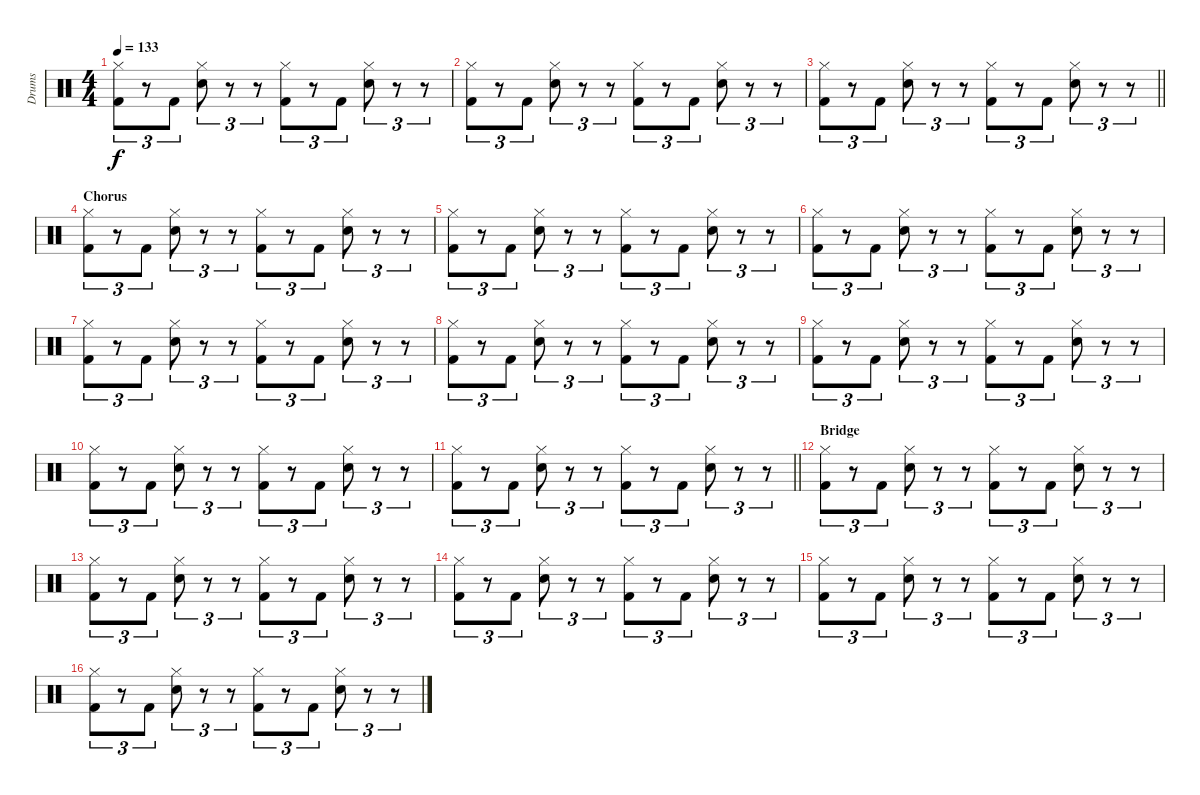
\track ("Drums" "Drums") {instrument percussion}
\staff {score}
\articulation defaults
\ts (4 4)
\tempo 133
\clef neutral
\ks c
("Hi-Hat (closed)" "Kick (hit) 2").8{tu (3 2) dy f} r.8{tu (3 2)} "Kick (hit) 2".8{tu (3 2)} ("Hi-Hat (closed)" "Snare (hit) 2").8{tu (3 2)} r.8{tu (3 2)} r.8{tu (3 2)} ("Hi-Hat (closed)" "Kick (hit) 2").8{tu (3 2)} r.8{tu (3 2)} "Kick (hit) 2".8{tu (3 2)} ("Hi-Hat (closed)" "Snare (hit) 2").8{tu (3 2)} r.8{tu (3 2)} r.8{tu (3 2)} |
("Hi-Hat (closed)" "Kick (hit) 2").8{tu (3 2)} r.8{tu (3 2)} "Kick (hit) 2".8{tu (3 2)} ("Hi-Hat (closed)" "Snare (hit) 2").8{tu (3 2)} r.8{tu (3 2)} r.8{tu (3 2)} ("Hi-Hat (closed)" "Kick (hit) 2").8{tu (3 2)} r.8{tu (3 2)} "Kick (hit) 2".8{tu (3 2)} ("Hi-Hat (closed)" "Snare (hit) 2").8{tu (3 2)} r.8{tu (3 2)} r.8{tu (3 2)} |
\barLineRight lightlight
("Hi-Hat (closed)" "Kick (hit) 2").8{tu (3 2)} r.8{tu (3 2)} "Kick (hit) 2".8{tu (3 2)} ("Hi-Hat (closed)" "Snare (hit) 2").8{tu (3 2)} r.8{tu (3 2)} r.8{tu (3 2)} ("Hi-Hat (closed)" "Kick (hit) 2").8{tu (3 2)} r.8{tu (3 2)} "Kick (hit) 2".8{tu (3 2)} ("Hi-Hat (closed)" "Snare (hit) 2").8{tu (3 2)} r.8{tu (3 2)} r.8{tu (3 2)} |
\section ("" "Chorus")
("Hi-Hat (closed)" "Kick (hit) 2").8{tu (3 2)} r.8{tu (3 2)} "Kick (hit) 2".8{tu (3 2)} ("Hi-Hat (closed)" "Snare (hit) 2").8{tu (3 2)} r.8{tu (3 2)} r.8{tu (3 2)} ("Hi-Hat (closed)" "Kick (hit) 2").8{tu (3 2)} r.8{tu (3 2)} "Kick (hit) 2".8{tu (3 2)} ("Hi-Hat (closed)" "Snare (hit) 2").8{tu (3 2)} r.8{tu (3 2)} r.8{tu (3 2)} |
("Hi-Hat (closed)" "Kick (hit) 2").8{tu (3 2)} r.8{tu (3 2)} "Kick (hit) 2".8{tu (3 2)} ("Hi-Hat (closed)" "Snare (hit) 2").8{tu (3 2)} r.8{tu (3 2)} r.8{tu (3 2)} ("Hi-Hat (closed)" "Kick (hit) 2").8{tu (3 2)} r.8{tu (3 2)} "Kick (hit) 2".8{tu (3 2)} ("Hi-Hat (closed)" "Snare (hit) 2").8{tu (3 2)} r.8{tu (3 2)} r.8{tu (3 2)} |
("Hi-Hat (closed)" "Kick (hit) 2").8{tu (3 2)} r.8{tu (3 2)} "Kick (hit) 2".8{tu (3 2)} ("Hi-Hat (closed)" "Snare (hit) 2").8{tu (3 2)} r.8{tu (3 2)} r.8{tu (3 2)} ("Hi-Hat (closed)" "Kick (hit) 2").8{tu (3 2)} r.8{tu (3 2)} "Kick (hit) 2".8{tu (3 2)} ("Hi-Hat (closed)" "Snare (hit) 2").8{tu (3 2)} r.8{tu (3 2)} r.8{tu (3 2)} |
("Hi-Hat (closed)" "Kick (hit) 2").8{tu (3 2)} r.8{tu (3 2)} "Kick (hit) 2".8{tu (3 2)} ("Hi-Hat (closed)" "Snare (hit) 2").8{tu (3 2)} r.8{tu (3 2)} r.8{tu (3 2)} ("Hi-Hat (closed)" "Kick (hit) 2").8{tu (3 2)} r.8{tu (3 2)} "Kick (hit) 2".8{tu (3 2)} ("Hi-Hat (closed)" "Snare (hit) 2").8{tu (3 2)} r.8{tu (3 2)} r.8{tu (3 2)} |
("Hi-Hat (closed)" "Kick (hit) 2").8{tu (3 2)} r.8{tu (3 2)} "Kick (hit) 2".8{tu (3 2)} ("Hi-Hat (closed)" "Snare (hit) 2").8{tu (3 2)} r.8{tu (3 2)} r.8{tu (3 2)} ("Hi-Hat (closed)" "Kick (hit) 2").8{tu (3 2)} r.8{tu (3 2)} "Kick (hit) 2".8{tu (3 2)} ("Hi-Hat (closed)" "Snare (hit) 2").8{tu (3 2)} r.8{tu (3 2)} r.8{tu (3 2)} |
("Hi-Hat (closed)" "Kick (hit) 2").8{tu (3 2)} r.8{tu (3 2)} "Kick (hit) 2".8{tu (3 2)} ("Hi-Hat (closed)" "Snare (hit) 2").8{tu (3 2)} r.8{tu (3 2)} r.8{tu (3 2)} ("Hi-Hat (closed)" "Kick (hit) 2").8{tu (3 2)} r.8{tu (3 2)} "Kick (hit) 2".8{tu (3 2)} ("Hi-Hat (closed)" "Snare (hit) 2").8{tu (3 2)} r.8{tu (3 2)} r.8{tu (3 2)} |
("Hi-Hat (closed)" "Kick (hit) 2").8{tu (3 2)} r.8{tu (3 2)} "Kick (hit) 2".8{tu (3 2)} ("Hi-Hat (closed)" "Snare (hit) 2").8{tu (3 2)} r.8{tu (3 2)} r.8{tu (3 2)} ("Hi-Hat (closed)" "Kick (hit) 2").8{tu (3 2)} r.8{tu (3 2)} "Kick (hit) 2".8{tu (3 2)} ("Hi-Hat (closed)" "Snare (hit) 2").8{tu (3 2)} r.8{tu (3 2)} r.8{tu (3 2)} |
\barLineRight lightlight
("Hi-Hat (closed)" "Kick (hit) 2").8{tu (3 2)} r.8{tu (3 2)} "Kick (hit) 2".8{tu (3 2)} ("Hi-Hat (closed)" "Snare (hit) 2").8{tu (3 2)} r.8{tu (3 2)} r.8{tu (3 2)} ("Hi-Hat (closed)" "Kick (hit) 2").8{tu (3 2)} r.8{tu (3 2)} "Kick (hit) 2".8{tu (3 2)} ("Hi-Hat (closed)" "Snare (hit) 2").8{tu (3 2)} r.8{tu (3 2)} r.8{tu (3 2)} |
\section ("" "Bridge")
("Hi-Hat (closed)" "Kick (hit) 2").8{tu (3 2)} r.8{tu (3 2)} "Kick (hit) 2".8{tu (3 2)} ("Hi-Hat (closed)" "Snare (hit) 2").8{tu (3 2)} r.8{tu (3 2)} r.8{tu (3 2)} ("Hi-Hat (closed)" "Kick (hit) 2").8{tu (3 2)} r.8{tu (3 2)} "Kick (hit) 2".8{tu (3 2)} ("Hi-Hat (closed)" "Snare (hit) 2").8{tu (3 2)} r.8{tu (3 2)} r.8{tu (3 2)} |
("Hi-Hat (closed)" "Kick (hit) 2").8{tu (3 2)} r.8{tu (3 2)} "Kick (hit) 2".8{tu (3 2)} ("Hi-Hat (closed)" "Snare (hit) 2").8{tu (3 2)} r.8{tu (3 2)} r.8{tu (3 2)} ("Hi-Hat (closed)" "Kick (hit) 2").8{tu (3 2)} r.8{tu (3 2)} "Kick (hit) 2".8{tu (3 2)} ("Hi-Hat (closed)" "Snare (hit) 2").8{tu (3 2)} r.8{tu (3 2)} r.8{tu (3 2)} |
("Hi-Hat (closed)" "Kick (hit) 2").8{tu (3 2)} r.8{tu (3 2)} "Kick (hit) 2".8{tu (3 2)} ("Hi-Hat (closed)" "Snare (hit) 2").8{tu (3 2)} r.8{tu (3 2)} r.8{tu (3 2)} ("Hi-Hat (closed)" "Kick (hit) 2").8{tu (3 2)} r.8{tu (3 2)} "Kick (hit) 2".8{tu (3 2)} ("Hi-Hat (closed)" "Snare (hit) 2").8{tu (3 2)} r.8{tu (3 2)} r.8{tu (3 2)} |
("Hi-Hat (closed)" "Kick (hit) 2").8{tu (3 2)} r.8{tu (3 2)} "Kick (hit) 2".8{tu (3 2)} ("Hi-Hat (closed)" "Snare (hit) 2").8{tu (3 2)} r.8{tu (3 2)} r.8{tu (3 2)} ("Hi-Hat (closed)" "Kick (hit) 2").8{tu (3 2)} r.8{tu (3 2)} "Kick (hit) 2".8{tu (3 2)} ("Hi-Hat (closed)" "Snare (hit) 2").8{tu (3 2)} r.8{tu (3 2)} r.8{tu (3 2)} |
("Hi-Hat (closed)" "Kick (hit) 2").8{tu (3 2)} r.8{tu (3 2)} "Kick (hit) 2".8{tu (3 2)} ("Hi-Hat (closed)" "Snare (hit) 2").8{tu (3 2)} r.8{tu (3 2)} r.8{tu (3 2)} ("Hi-Hat (closed)" "Kick (hit) 2").8{tu (3 2)} r.8{tu (3 2)} "Kick (hit) 2".8{tu (3 2)} ("Hi-Hat (closed)" "Snare (hit) 2").8{tu (3 2)} r.8{tu (3 2)} r.8{tu (3 2)}
